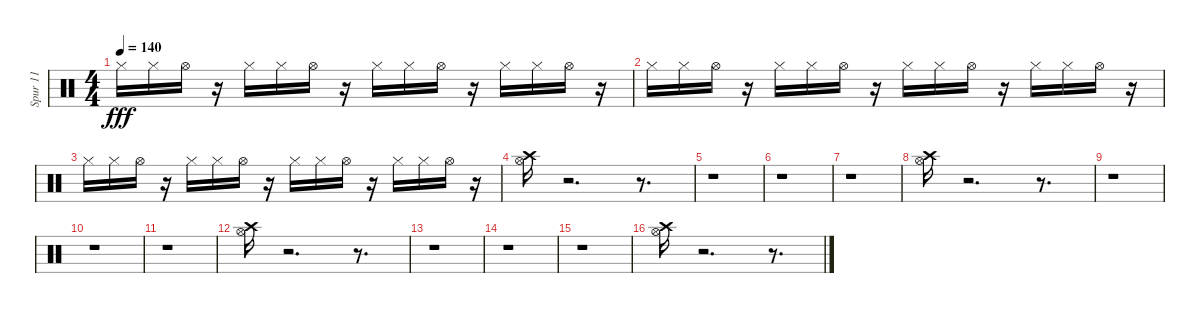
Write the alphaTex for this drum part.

\track ("Spur 11" "Spur 11") {instrument percussion}
\staff {score}
\articulation defaults
\ts (4 4)
\tempo 140
\clef neutral
\ks c "Hi-Hat (closed)".16{dy fff} "Hi-Hat (closed)".16 "Hi-Hat (open)".16
r.16 "Hi-Hat (closed)".16 "Hi-Hat (closed)".16 "Hi-Hat (open)".16 r.16 "Hi-Hat (closed)".16 "Hi-Hat (closed)".16 "Hi-Hat (open)".16 r.16 "Hi-Hat (closed)".16 "Hi-Hat (closed)".16 "Hi-Hat (open)".16 r.16 |
"Hi-Hat (closed)".16 "Hi-Hat (closed)".16 "Hi-Hat (open)".16 r.16 "Hi-Hat (closed)".16 "Hi-Hat (closed)".16 "Hi-Hat (open)".16 r.16 "Hi-Hat (closed)".16 "Hi-Hat (closed)".16 "Hi-Hat (open)".16 r.16 "Hi-Hat (closed)".16 "Hi-Hat (closed)".16 "Hi-Hat (open)".16 r.16 |
"Hi-Hat (closed)".16 "Hi-Hat (closed)".16 "Hi-Hat (open)".16 r.16 "Hi-Hat (closed)".16 "Hi-Hat (closed)".16 "Hi-Hat (open)".16 r.16 "Hi-Hat (closed)".16 "Hi-Hat (closed)".16 "Hi-Hat (open)".16 r.16 "Hi-Hat (closed)".16 "Hi-Hat (closed)".16 "Hi-Hat (open)".16 r.16 |
("Crash high (hit)" "Hi-Hat (open)").16 r.2{d} r.8{d} |
r.1 |
r.1 |
r.1 |
("Crash high (hit)" "Hi-Hat (open)").16 r.2{d} r.8{d} |
r.1 |
r.1 |
r.1 |
("Crash high (hit)" "Hi-Hat (open)").16 r.2{d} r.8{d} |
r.1 |
r.1 |
r.1 |
("Hi-Hat (open)" "Crash high (hit)").16 r.2{d} r.8{d}
